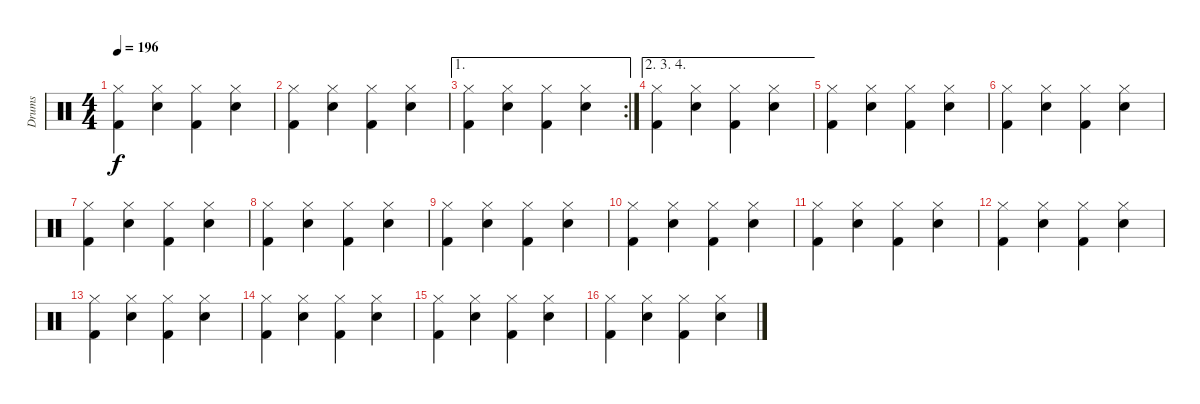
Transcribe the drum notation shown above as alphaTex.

\track ("Drums" "Drums") {instrument percussion}
\staff {score}
\articulation defaults
\ts (4 4)
\tempo 196
\clef neutral
\ks c
("Hi-Hat (closed)" "Kick (hit) 2").4{dy f} ("Hi-Hat (closed)" "Snare (hit) 2").4 ("Hi-Hat (closed)" "Kick (hit) 2").4 ("Hi-Hat (closed)" "Snare (hit) 2").4 |
("Hi-Hat (closed)" "Kick (hit) 2").4 ("Hi-Hat (closed)" "Snare (hit) 2").4 ("Hi-Hat (closed)" "Kick (hit) 2").4 ("Hi-Hat (closed)" "Snare (hit) 2").4 |
\ae 1
\rc 2
("Hi-Hat (closed)" "Kick (hit) 2").4 ("Hi-Hat (closed)" "Snare (hit) 2").4 ("Hi-Hat (closed)" "Kick (hit) 2").4 ("Hi-Hat (closed)" "Snare (hit) 2").4 |
\ae (2 3 4)
("Hi-Hat (closed)" "Kick (hit) 2").4 ("Hi-Hat (closed)" "Snare (hit) 2").4 ("Hi-Hat (closed)" "Kick (hit) 2").4 ("Hi-Hat (closed)" "Snare (hit) 2").4 |
("Hi-Hat (closed)" "Kick (hit) 2").4 ("Hi-Hat (closed)" "Snare (hit) 2").4 ("Hi-Hat (closed)" "Kick (hit) 2").4 ("Hi-Hat (closed)" "Snare (hit) 2").4 |
("Hi-Hat (closed)" "Kick (hit) 2").4 ("Hi-Hat (closed)" "Snare (hit) 2").4 ("Hi-Hat (closed)" "Kick (hit) 2").4 ("Hi-Hat (closed)" "Snare (hit) 2").4 |
("Hi-Hat (closed)" "Kick (hit) 2").4 ("Hi-Hat (closed)" "Snare (hit) 2").4 ("Hi-Hat (closed)" "Kick (hit) 2").4 ("Hi-Hat (closed)" "Snare (hit) 2").4 |
("Hi-Hat (closed)" "Kick (hit) 2").4 ("Hi-Hat (closed)" "Snare (hit) 2").4 ("Hi-Hat (closed)" "Kick (hit) 2").4 ("Hi-Hat (closed)" "Snare (hit) 2").4 |
("Hi-Hat (closed)" "Kick (hit) 2").4 ("Hi-Hat (closed)" "Snare (hit) 2").4 ("Hi-Hat (closed)" "Kick (hit) 2").4 ("Hi-Hat (closed)" "Snare (hit) 2").4 |
("Hi-Hat (closed)" "Kick (hit) 2").4 ("Hi-Hat (closed)" "Snare (hit) 2").4 ("Hi-Hat (closed)" "Kick (hit) 2").4 ("Hi-Hat (closed)" "Snare (hit) 2").4 |
("Hi-Hat (closed)" "Kick (hit) 2").4 ("Hi-Hat (closed)" "Snare (hit) 2").4 ("Hi-Hat (closed)" "Kick (hit) 2").4 ("Hi-Hat (closed)" "Snare (hit) 2").4 |
("Hi-Hat (closed)" "Kick (hit) 2").4 ("Hi-Hat (closed)" "Snare (hit) 2").4 ("Hi-Hat (closed)" "Kick (hit) 2").4 ("Hi-Hat (closed)" "Snare (hit) 2").4 |
("Hi-Hat (closed)" "Kick (hit) 2").4 ("Hi-Hat (closed)" "Snare (hit) 2").4 ("Hi-Hat (closed)" "Kick (hit) 2").4 ("Hi-Hat (closed)" "Snare (hit) 2").4 |
("Hi-Hat (closed)" "Kick (hit) 2").4 ("Hi-Hat (closed)" "Snare (hit) 2").4 ("Hi-Hat (closed)" "Kick (hit) 2").4 ("Hi-Hat (closed)" "Snare (hit) 2").4 |
("Hi-Hat (closed)" "Kick (hit) 2").4 ("Hi-Hat (closed)" "Snare (hit) 2").4 ("Hi-Hat (closed)" "Kick (hit) 2").4 ("Hi-Hat (closed)" "Snare (hit) 2").4 |
("Hi-Hat (closed)" "Kick (hit) 2").4 ("Hi-Hat (closed)" "Snare (hit) 2").4 ("Hi-Hat (closed)" "Kick (hit) 2").4 ("Hi-Hat (closed)" "Snare (hit) 2").4
